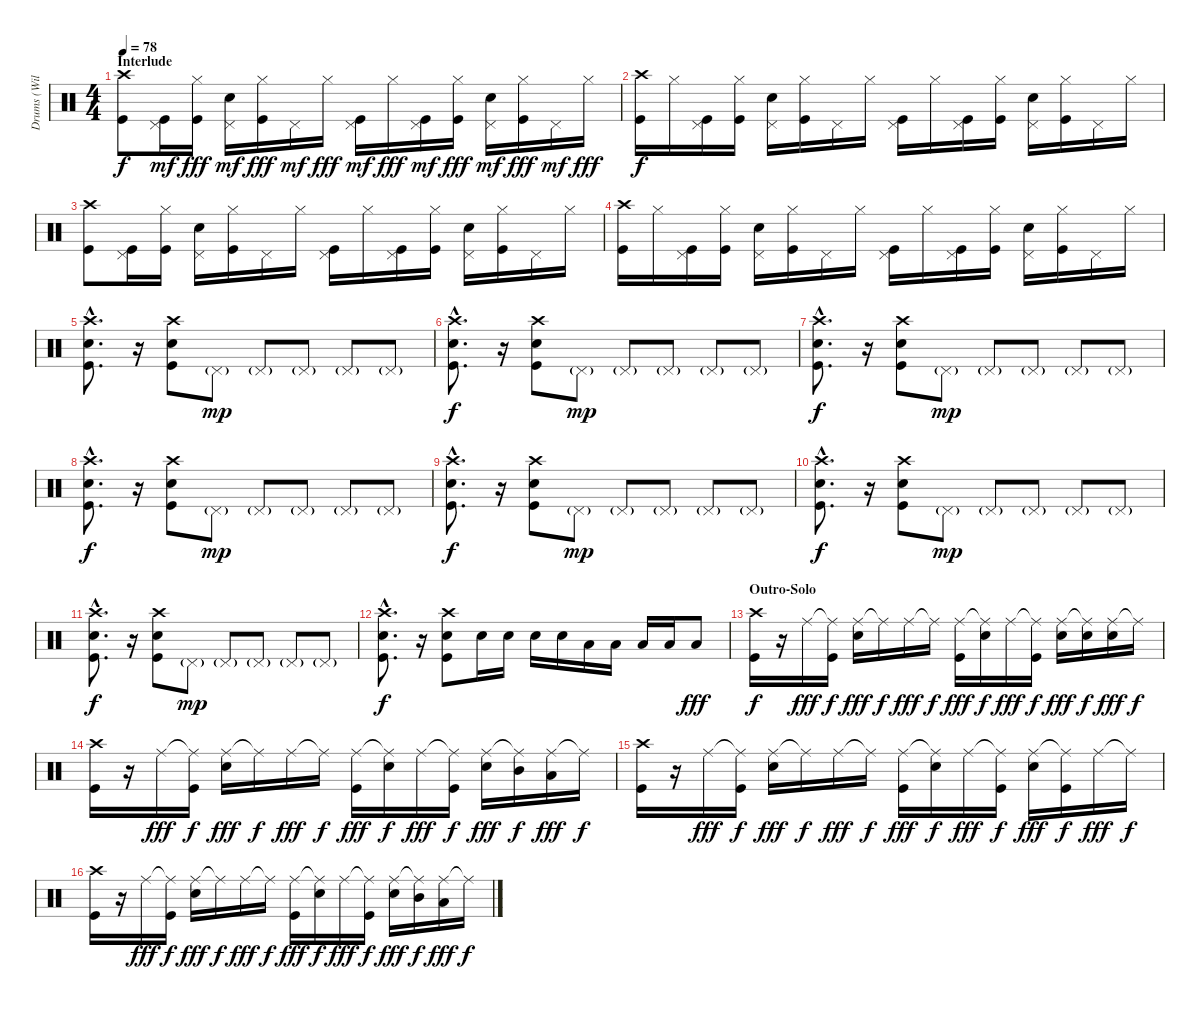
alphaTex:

\track ("Drums (William Ward)" "Drums (Wil") {instrument percussion}
\staff {score}
\articulation defaults
\ts (4 4)
\section ("" "Interlude")
\tempo 78
\clef neutral
\ks c
("Crash high (hit)" "Kick (hit)").8{dy f} ("Pedal Hi-Hat (hit)" "Kick (hit)").16{dy mf} ("Hi-Hat (closed)" "Kick (hit)").16{dy fff} ("Pedal Hi-Hat (hit)" "Electric Snare (hit)").16{dy mf} ("Hi-Hat (closed)" "Kick (hit)").16{dy fff} "Pedal Hi-Hat (hit)".16{dy mf} "Hi-Hat (closed)".16{dy fff} ("Pedal Hi-Hat (hit)" "Kick (hit)").16{dy mf} "Hi-Hat (closed)".16{dy fff} ("Pedal Hi-Hat (hit)" "Kick (hit)").16{dy mf} ("Hi-Hat (closed)" "Kick (hit)").16{dy fff} ("Pedal Hi-Hat (hit)" "Electric Snare (hit)").16{dy mf} ("Hi-Hat (closed)" "Kick (hit)").16{dy fff} "Pedal Hi-Hat (hit)".16{dy mf} "Hi-Hat (closed)".16{dy fff} |
("Crash high (hit)" "Kick (hit)").16{dy f} "Hi-Hat (closed)".16 ("Pedal Hi-Hat (hit)" "Kick (hit)").16 ("Hi-Hat (closed)" "Kick (hit)").16 ("Pedal Hi-Hat (hit)" "Electric Snare (hit)").16 ("Hi-Hat (closed)" "Kick (hit)").16 "Pedal Hi-Hat (hit)".16 "Hi-Hat (closed)".16 ("Pedal Hi-Hat (hit)" "Kick (hit)").16 "Hi-Hat (closed)".16 ("Pedal Hi-Hat (hit)" "Kick (hit)").16 ("Hi-Hat (closed)" "Kick (hit)").16 ("Pedal Hi-Hat (hit)" "Electric Snare (hit)").16 ("Hi-Hat (closed)" "Kick (hit)").16 "Pedal Hi-Hat (hit)".16 "Hi-Hat (closed)".16 |
("Crash high (hit)" "Kick (hit)").8 ("Pedal Hi-Hat (hit)" "Kick (hit)").16 ("Hi-Hat (closed)" "Kick (hit)").16 ("Pedal Hi-Hat (hit)" "Electric Snare (hit)").16 ("Hi-Hat (closed)" "Kick (hit)").16 "Pedal Hi-Hat (hit)".16 "Hi-Hat (closed)".16 ("Pedal Hi-Hat (hit)" "Kick (hit)").16 "Hi-Hat (closed)".16 ("Pedal Hi-Hat (hit)" "Kick (hit)").16 ("Hi-Hat (closed)" "Kick (hit)").16 ("Pedal Hi-Hat (hit)" "Electric Snare (hit)").16 ("Hi-Hat (closed)" "Kick (hit)").16 "Pedal Hi-Hat (hit)".16 "Hi-Hat (closed)".16 |
("Crash high (hit)" "Kick (hit)").16 "Hi-Hat (closed)".16 ("Pedal Hi-Hat (hit)" "Kick (hit)").16 ("Hi-Hat (closed)" "Kick (hit)").16 ("Pedal Hi-Hat (hit)" "Electric Snare (hit)").16 ("Hi-Hat (closed)" "Kick (hit)").16 "Pedal Hi-Hat (hit)".16 "Hi-Hat (closed)".16 ("Pedal Hi-Hat (hit)" "Kick (hit)").16 "Hi-Hat (closed)".16 ("Pedal Hi-Hat (hit)" "Kick (hit)").16 ("Hi-Hat (closed)" "Kick (hit)").16 ("Pedal Hi-Hat (hit)" "Electric Snare (hit)").16 ("Hi-Hat (closed)" "Kick (hit)").16 "Pedal Hi-Hat (hit)".16 "Hi-Hat (closed)".16 |
("Crash high (hit)"{hac} "Electric Snare (hit)"{hac} "Kick (hit)"{hac}).8{d} r.16 ("Crash high (hit)" "Electric Snare (hit)" "Kick (hit)").8 "Pedal Hi-Hat (hit)"{g}.8{dy mp} "Pedal Hi-Hat (hit)"{g}.8 "Pedal Hi-Hat (hit)"{g}.8 "Pedal Hi-Hat (hit)"{g}.8 "Pedal Hi-Hat (hit)"{g}.8 |
("Crash high (hit)"{hac} "Electric Snare (hit)"{hac} "Kick (hit)"{hac}).8{d dy f} r.16 ("Crash high (hit)" "Electric Snare (hit)" "Kick (hit)").8 "Pedal Hi-Hat (hit)"{g}.8{dy mp} "Pedal Hi-Hat (hit)"{g}.8 "Pedal Hi-Hat (hit)"{g}.8 "Pedal Hi-Hat (hit)"{g}.8 "Pedal Hi-Hat (hit)"{g}.8 |
("Crash high (hit)"{hac} "Electric Snare (hit)"{hac} "Kick (hit)"{hac}).8{d dy f} r.16 ("Crash high (hit)" "Electric Snare (hit)" "Kick (hit)").8 "Pedal Hi-Hat (hit)"{g}.8{dy mp} "Pedal Hi-Hat (hit)"{g}.8 "Pedal Hi-Hat (hit)"{g}.8 "Pedal Hi-Hat (hit)"{g}.8 "Pedal Hi-Hat (hit)"{g}.8 |
("Crash high (hit)"{hac} "Electric Snare (hit)"{hac} "Kick (hit)"{hac}).8{d dy f} r.16 ("Crash high (hit)" "Electric Snare (hit)" "Kick (hit)").8 "Pedal Hi-Hat (hit)"{g}.8{dy mp} "Pedal Hi-Hat (hit)"{g}.8 "Pedal Hi-Hat (hit)"{g}.8 "Pedal Hi-Hat (hit)"{g}.8 "Pedal Hi-Hat (hit)"{g}.8 |
("Crash high (hit)"{hac} "Electric Snare (hit)"{hac} "Kick (hit)"{hac}).8{d dy f} r.16 ("Crash high (hit)" "Electric Snare (hit)" "Kick (hit)").8 "Pedal Hi-Hat (hit)"{g}.8{dy mp} "Pedal Hi-Hat (hit)"{g}.8 "Pedal Hi-Hat (hit)"{g}.8 "Pedal Hi-Hat (hit)"{g}.8 "Pedal Hi-Hat (hit)"{g}.8 |
("Crash high (hit)"{hac} "Electric Snare (hit)"{hac} "Kick (hit)"{hac}).8{d dy f} r.16 ("Crash high (hit)" "Electric Snare (hit)" "Kick (hit)").8 "Pedal Hi-Hat (hit)"{g}.8{dy mp} "Pedal Hi-Hat (hit)"{g}.8 "Pedal Hi-Hat (hit)"{g}.8 "Pedal Hi-Hat (hit)"{g}.8 "Pedal Hi-Hat (hit)"{g}.8 |
("Crash high (hit)"{hac} "Electric Snare (hit)"{hac} "Kick (hit)"{hac}).8{d dy f} r.16 ("Crash high (hit)" "Electric Snare (hit)" "Kick (hit)").8 "Pedal Hi-Hat (hit)"{g}.8{dy mp} "Pedal Hi-Hat (hit)"{g}.8 "Pedal Hi-Hat (hit)"{g}.8 "Pedal Hi-Hat (hit)"{g}.8 "Pedal Hi-Hat (hit)"{g}.8 |
("Crash high (hit)"{hac} "Electric Snare (hit)"{hac} "Kick (hit)"{hac}).8{d dy f} r.16 ("Crash high (hit)" "Electric Snare (hit)" "Kick (hit)").8 "Electric Snare (hit)".16 "Electric Snare (hit)".16 "Electric Snare (hit)".16 "Electric Snare (hit)".16 "Low Tom (hit)".16 "Low Tom (hit)".16 "Low Tom (hit)".16 "Low Tom (hit)".16 "Low Tom (hit)".8{dy fff} |
\section ("" "Outro-Solo")
("Crash high (hit)" "Kick (hit)").16{dy f} r.16 "Ride (middle)".16{dy fff} ("Ride (middle)"{t} "Kick (hit)").16{dy f} ("Ride (middle)" "Electric Snare (hit)").16{dy fff} "Ride (middle)"{t}.16{dy f} "Ride (middle)".16{dy fff} "Ride (middle)"{t}.16{dy f} ("Ride (middle)" "Kick (hit)").16{dy fff} ("Ride (middle)"{t} "Electric Snare (hit)").16{dy f} "Ride (middle)".16{dy fff} ("Ride (middle)"{t} "Kick (hit)").16{dy f} ("Ride (middle)" "Electric Snare (hit)").16{dy fff} ("Ride (middle)"{t} "Electric Snare (hit)").16{dy f} ("Ride (middle)" "Electric Snare (hit)").16{dy fff} "Ride (middle)"{t}.16{dy f} |
("Crash high (hit)" "Kick (hit)").16 r.16 "Ride (middle)".16{dy fff} ("Ride (middle)"{t} "Kick (hit)").16{dy f} ("Ride (middle)" "Electric Snare (hit)").16{dy fff} "Ride (middle)"{t}.16{dy f} "Ride (middle)".16{dy fff} "Ride (middle)"{t}.16{dy f} ("Ride (middle)" "Kick (hit)").16{dy fff} ("Ride (middle)"{t} "Electric Snare (hit)").16{dy f} "Ride (middle)".16{dy fff} ("Ride (middle)"{t} "Kick (hit)").16{dy f} ("Ride (middle)" "Electric Snare (hit)").16{dy fff} ("Ride (middle)"{t} "Mid Tom (hit)").16{dy f} ("Ride (middle)" "Low Tom (hit)").16{dy fff} "Ride (middle)"{t}.16{dy f} |
("Crash high (hit)" "Kick (hit)").16 r.16 "Ride (middle)".16{dy fff} ("Ride (middle)"{t} "Kick (hit)").16{dy f} ("Ride (middle)" "Electric Snare (hit)").16{dy fff} "Ride (middle)"{t}.16{dy f} "Ride (middle)".16{dy fff} "Ride (middle)"{t}.16{dy f} ("Ride (middle)" "Kick (hit)").16{dy fff} ("Ride (middle)"{t} "Electric Snare (hit)").16{dy f} "Ride (middle)".16{dy fff} ("Ride (middle)"{t} "Kick (hit)").16{dy f} ("Ride (middle)" "Electric Snare (hit)").16{dy fff} ("Ride (middle)"{t} "Kick (hit)").16{dy f} "Ride (middle)".16{dy fff} "Ride (middle)"{t}.16{dy f} |
("Crash high (hit)" "Kick (hit)").16 r.16 "Ride (middle)".16{dy fff} ("Ride (middle)"{t} "Kick (hit)").16{dy f} ("Ride (middle)" "Electric Snare (hit)").16{dy fff} "Ride (middle)"{t}.16{dy f} "Ride (middle)".16{dy fff} "Ride (middle)"{t}.16{dy f} ("Ride (middle)" "Kick (hit)").16{dy fff} ("Ride (middle)"{t} "Electric Snare (hit)").16{dy f} "Ride (middle)".16{dy fff} ("Ride (middle)"{t} "Kick (hit)").16{dy f} ("Ride (middle)" "Electric Snare (hit)").16{dy fff} ("Ride (middle)"{t} "Mid Tom (hit)").16{dy f} ("Ride (middle)" "Low Tom (hit)").16{dy fff} "Ride (middle)"{t}.16{dy f}
